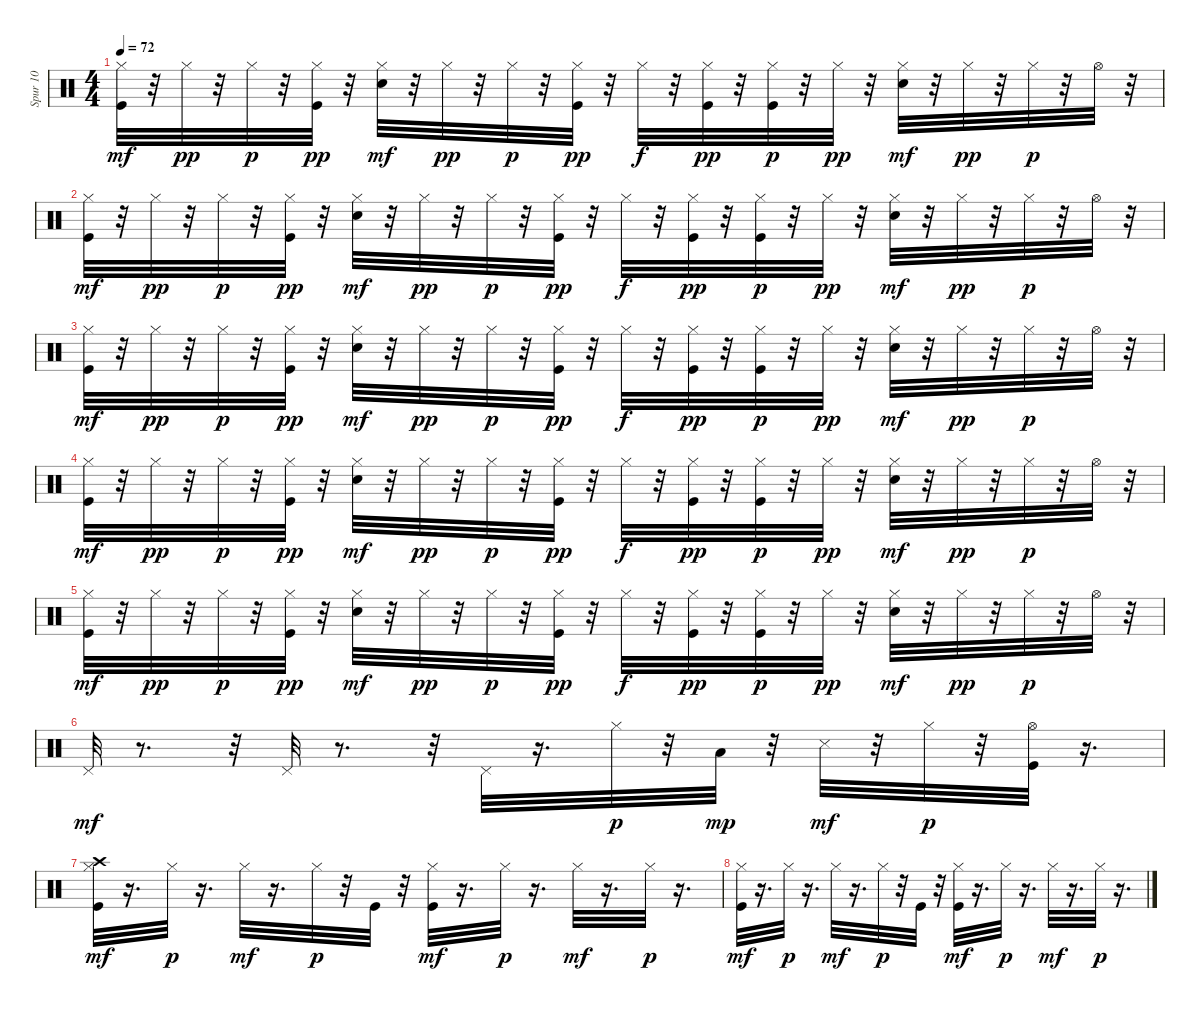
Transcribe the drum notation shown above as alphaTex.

\track ("Spur 10" "Spur 10") {instrument percussion}
\staff {score}
\articulation defaults
\ts (4 4)
\tempo 72
\clef neutral
\ks c
("Kick (hit)" "Hi-Hat (closed)").32{dy mf} r.32 "Hi-Hat (closed)".32{dy pp} r.32 "Hi-Hat (closed)".32{dy p} r.32 ("Kick (hit)" "Hi-Hat (closed)").32{dy pp} r.32 ("Snare (hit) 2" "Hi-Hat (closed)").32{dy mf} r.32 "Hi-Hat (closed)".32{dy pp} r.32 "Hi-Hat (closed)".32{dy p} r.32 ("Kick (hit)" "Hi-Hat (closed)").32{dy pp} r.32 "Hi-Hat (closed)".32{dy f} r.32 ("Kick (hit)" "Hi-Hat (closed)").32{dy pp} r.32 ("Kick (hit)" "Hi-Hat (closed)").32{dy p} r.32 "Hi-Hat (closed)".32{dy pp} r.32 ("Snare (hit) 2" "Hi-Hat (closed)").32{dy mf} r.32 "Hi-Hat (closed)".32{dy pp} r.32 "Hi-Hat (closed)".32{dy p} r.32 "Hi-Hat (open)".32 r.32 |
("Kick (hit)" "Hi-Hat (closed)").32{dy mf} r.32 "Hi-Hat (closed)".32{dy pp} r.32 "Hi-Hat (closed)".32{dy p} r.32 ("Kick (hit)" "Hi-Hat (closed)").32{dy pp} r.32 ("Snare (hit) 2" "Hi-Hat (closed)").32{dy mf} r.32 "Hi-Hat (closed)".32{dy pp} r.32 "Hi-Hat (closed)".32{dy p} r.32 ("Kick (hit)" "Hi-Hat (closed)").32{dy pp} r.32 "Hi-Hat (closed)".32{dy f} r.32 ("Kick (hit)" "Hi-Hat (closed)").32{dy pp} r.32 ("Kick (hit)" "Hi-Hat (closed)").32{dy p} r.32 "Hi-Hat (closed)".32{dy pp} r.32 ("Snare (hit) 2" "Hi-Hat (closed)").32{dy mf} r.32 "Hi-Hat (closed)".32{dy pp} r.32 "Hi-Hat (closed)".32{dy p} r.32 "Hi-Hat (open)".32 r.32 |
("Kick (hit)" "Hi-Hat (closed)").32{dy mf} r.32 "Hi-Hat (closed)".32{dy pp} r.32 "Hi-Hat (closed)".32{dy p} r.32 ("Kick (hit)" "Hi-Hat (closed)").32{dy pp} r.32 ("Snare (hit) 2" "Hi-Hat (closed)").32{dy mf} r.32 "Hi-Hat (closed)".32{dy pp} r.32 "Hi-Hat (closed)".32{dy p} r.32 ("Kick (hit)" "Hi-Hat (closed)").32{dy pp} r.32 "Hi-Hat (closed)".32{dy f} r.32 ("Kick (hit)" "Hi-Hat (closed)").32{dy pp} r.32 ("Kick (hit)" "Hi-Hat (closed)").32{dy p} r.32 "Hi-Hat (closed)".32{dy pp} r.32 ("Snare (hit) 2" "Hi-Hat (closed)").32{dy mf} r.32 "Hi-Hat (closed)".32{dy pp} r.32 "Hi-Hat (closed)".32{dy p} r.32 "Hi-Hat (open)".32 r.32 |
("Kick (hit)" "Hi-Hat (closed)").32{dy mf} r.32 "Hi-Hat (closed)".32{dy pp} r.32 "Hi-Hat (closed)".32{dy p} r.32 ("Kick (hit)" "Hi-Hat (closed)").32{dy pp} r.32 ("Snare (hit) 2" "Hi-Hat (closed)").32{dy mf} r.32 "Hi-Hat (closed)".32{dy pp} r.32 "Hi-Hat (closed)".32{dy p} r.32 ("Kick (hit)" "Hi-Hat (closed)").32{dy pp} r.32 "Hi-Hat (closed)".32{dy f} r.32 ("Kick (hit)" "Hi-Hat (closed)").32{dy pp} r.32 ("Kick (hit)" "Hi-Hat (closed)").32{dy p} r.32 "Hi-Hat (closed)".32{dy pp} r.32 ("Snare (hit) 2" "Hi-Hat (closed)").32{dy mf} r.32 "Hi-Hat (closed)".32{dy pp} r.32 "Hi-Hat (closed)".32{dy p} r.32 "Hi-Hat (open)".32 r.32 |
("Kick (hit)" "Hi-Hat (closed)").32{dy mf} r.32 "Hi-Hat (closed)".32{dy pp} r.32 "Hi-Hat (closed)".32{dy p} r.32 ("Kick (hit)" "Hi-Hat (closed)").32{dy pp} r.32 ("Snare (hit) 2" "Hi-Hat (closed)").32{dy mf} r.32 "Hi-Hat (closed)".32{dy pp} r.32 "Hi-Hat (closed)".32{dy p} r.32 ("Kick (hit)" "Hi-Hat (closed)").32{dy pp} r.32 "Hi-Hat (closed)".32{dy f} r.32 ("Kick (hit)" "Hi-Hat (closed)").32{dy pp} r.32 ("Kick (hit)" "Hi-Hat (closed)").32{dy p} r.32 "Hi-Hat (closed)".32{dy pp} r.32 ("Snare (hit) 2" "Hi-Hat (closed)").32{dy mf} r.32 "Hi-Hat (closed)".32{dy pp} r.32 "Hi-Hat (closed)".32{dy p} r.32 "Hi-Hat (open)".32 r.32 |
"Pedal Hi-Hat (hit)".32{dy mf} r.8{d} r.32 "Pedal Hi-Hat (hit)".32 r.8{d} r.32 "Pedal Hi-Hat (hit)".32 r.16{d} "Hi-Hat (closed)".32{dy p} r.32 "Low Tom (hit)".32{dy mp} r.32 "Snare (side stick) 3".32{dy mf} r.32 "Hi-Hat (closed)".32{dy p} r.32 ("Kick (hit)" "Hi-Hat (open)").32 r.16{d} |
("Crash high (hit)" "Kick (hit)" "Hi-Hat (closed)").32{dy mf} r.16{d} "Hi-Hat (closed)".32{dy p} r.16{d} "Hi-Hat (closed)".32{dy mf} r.16{d} "Hi-Hat (closed)".32{dy p} r.32 "Kick (hit)".32 r.32 ("Kick (hit)" "Hi-Hat (closed)").32{dy mf} r.16{d} "Hi-Hat (closed)".32{dy p} r.16{d} "Hi-Hat (closed)".32{dy mf} r.16{d} "Hi-Hat (closed)".32{dy p} r.16{d} |
("Kick (hit)" "Hi-Hat (closed)").32{dy mf} r.16{d} "Hi-Hat (closed)".32{dy p} r.16{d} "Hi-Hat (closed)".32{dy mf} r.16{d} "Hi-Hat (closed)".32{dy p} r.32 "Kick (hit)".32 r.32 ("Kick (hit)" "Hi-Hat (closed)").32{dy mf} r.16{d} "Hi-Hat (closed)".32{dy p} r.16{d} "Hi-Hat (closed)".32{dy mf} r.16{d} "Hi-Hat (closed)".32{dy p} r.16{d}
